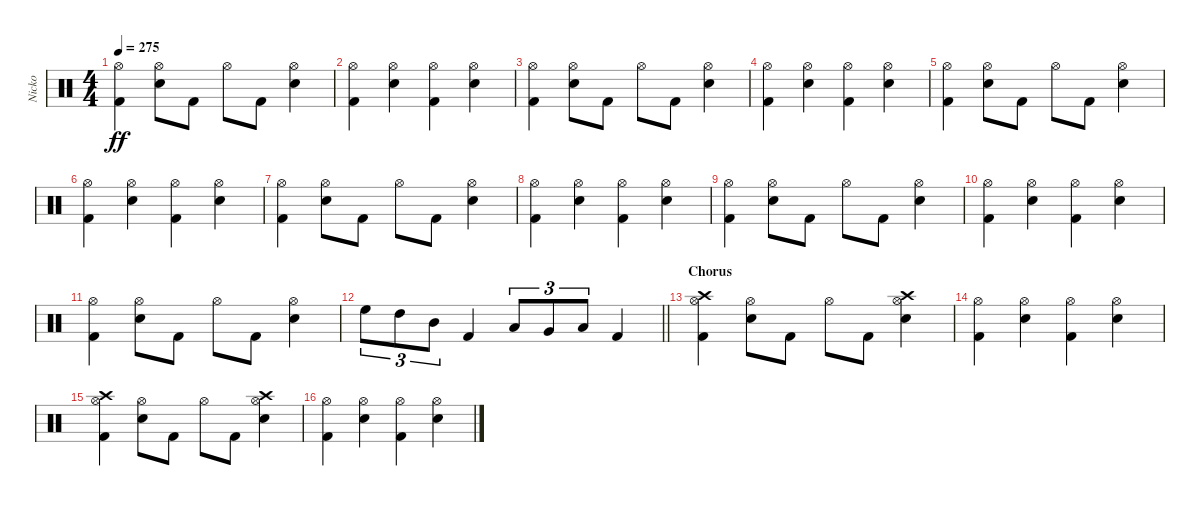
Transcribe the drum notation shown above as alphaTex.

\track ("Nicko" "Nicko") {instrument percussion}
\staff {score}
\articulation defaults
\ts (4 4)
\tempo 275
\clef neutral
\ks c
("Kick (hit) 2" "Hi-Hat (open)").4{dy ff} ("Snare (hit) 2" "Hi-Hat (open)").8 "Kick (hit) 2".8 "Hi-Hat (open)".8 "Kick (hit) 2".8 ("Snare (hit) 2" "Hi-Hat (open)").4 |
("Kick (hit) 2" "Hi-Hat (open)").4 ("Snare (hit) 2" "Hi-Hat (open)").4 ("Kick (hit) 2" "Hi-Hat (open)").4 ("Snare (hit) 2" "Hi-Hat (open)").4 |
("Kick (hit) 2" "Hi-Hat (open)").4 ("Snare (hit) 2" "Hi-Hat (open)").8 "Kick (hit) 2".8 "Hi-Hat (open)".8 "Kick (hit) 2".8 ("Snare (hit) 2" "Hi-Hat (open)").4 |
("Kick (hit) 2" "Hi-Hat (open)").4 ("Snare (hit) 2" "Hi-Hat (open)").4 ("Kick (hit) 2" "Hi-Hat (open)").4 ("Snare (hit) 2" "Hi-Hat (open)").4 |
("Kick (hit) 2" "Hi-Hat (open)").4 ("Snare (hit) 2" "Hi-Hat (open)").8 "Kick (hit) 2".8 "Hi-Hat (open)".8 "Kick (hit) 2".8 ("Snare (hit) 2" "Hi-Hat (open)").4 |
("Kick (hit) 2" "Hi-Hat (open)").4 ("Snare (hit) 2" "Hi-Hat (open)").4 ("Kick (hit) 2" "Hi-Hat (open)").4 ("Snare (hit) 2" "Hi-Hat (open)").4 |
("Kick (hit) 2" "Hi-Hat (open)").4 ("Snare (hit) 2" "Hi-Hat (open)").8 "Kick (hit) 2".8 "Hi-Hat (open)".8 "Kick (hit) 2".8 ("Snare (hit) 2" "Hi-Hat (open)").4 |
("Kick (hit) 2" "Hi-Hat (open)").4 ("Snare (hit) 2" "Hi-Hat (open)").4 ("Kick (hit) 2" "Hi-Hat (open)").4 ("Snare (hit) 2" "Hi-Hat (open)").4 |
("Kick (hit) 2" "Hi-Hat (open)").4 ("Snare (hit) 2" "Hi-Hat (open)").8 "Kick (hit) 2".8 "Hi-Hat (open)".8 "Kick (hit) 2".8 ("Snare (hit) 2" "Hi-Hat (open)").4 |
("Kick (hit) 2" "Hi-Hat (open)").4 ("Snare (hit) 2" "Hi-Hat (open)").4 ("Kick (hit) 2" "Hi-Hat (open)").4 ("Snare (hit) 2" "Hi-Hat (open)").4 |
("Kick (hit) 2" "Hi-Hat (open)").4 ("Snare (hit) 2" "Hi-Hat (open)").8 "Kick (hit) 2".8 "Hi-Hat (open)".8 "Kick (hit) 2".8 ("Snare (hit) 2" "Hi-Hat (open)").4 |
\barLineRight lightlight "High Floor Tom (hit)".8{tu (3 2)} "High Tom (hit)".8{tu (3 2)} "Mid Tom (hit)".8{tu (3 2)} "Kick (hit) 2".4 "Low Tom (hit)".8{tu (3 2)} "Very Low Tom (hit)".8{tu (3 2)} "Low Floor Tom (hit)".8{tu (3 2)} "Kick (hit) 2".4
|
\section ("" "Chorus")
("Kick (hit) 2" "Hi-Hat (open)" "Crash high (hit)").4 ("Snare (hit) 2" "Hi-Hat (open)").8 "Kick (hit) 2".8 "Hi-Hat (open)".8 "Kick (hit) 2".8 ("Snare (hit) 2" "Hi-Hat (open)" "Crash high (hit)").4 |
("Kick (hit) 2" "Hi-Hat (open)").4 ("Snare (hit) 2" "Hi-Hat (open)").4 ("Kick (hit) 2" "Hi-Hat (open)").4 ("Snare (hit) 2" "Hi-Hat (open)").4 |
("Kick (hit) 2" "Hi-Hat (open)" "Crash high (hit)").4 ("Snare (hit) 2" "Hi-Hat (open)").8 "Kick (hit) 2".8 "Hi-Hat (open)".8 "Kick (hit) 2".8 ("Snare (hit) 2" "Hi-Hat (open)" "Crash high (hit)").4 |
("Kick (hit) 2" "Hi-Hat (open)").4 ("Snare (hit) 2" "Hi-Hat (open)").4 ("Kick (hit) 2" "Hi-Hat (open)").4 ("Snare (hit) 2" "Hi-Hat (open)").4
